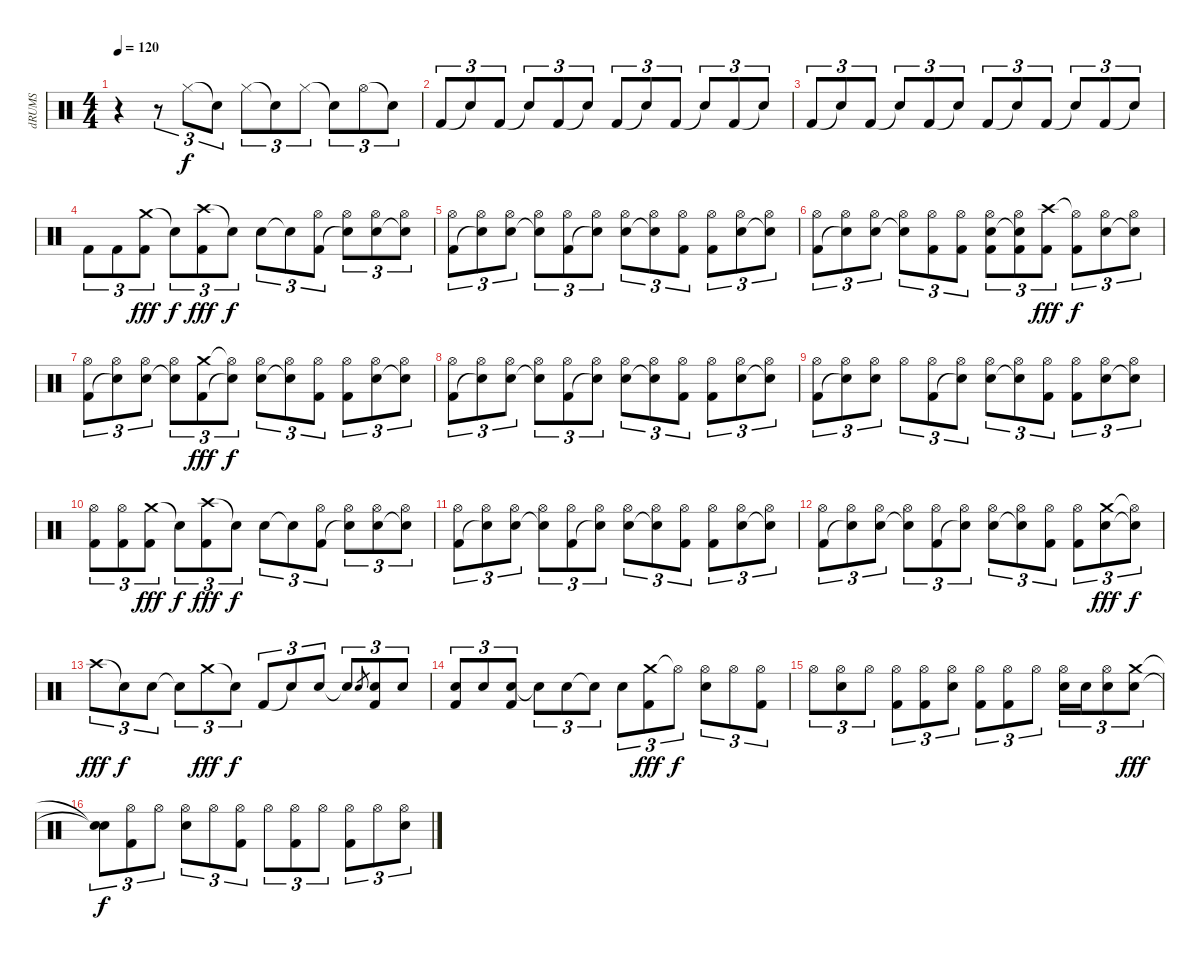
\track ("dRUMS" "dRUMS") {instrument percussion}
\staff {score}
\articulation defaults
\ts (4 4)
\tempo 120
\clef neutral
\ks c
r.4{dy f} r.8{tu (3 2)} "Hi-Hat (closed)".8{tu (3 2)} "Snare (hit)"{t}.8{tu (3 2)} "Hi-Hat (closed)".8{tu (3 2)} "Snare (hit)"{t}.8{tu (3 2)} "Hi-Hat (closed)".8{tu (3 2)} "Snare (hit)"{t}.8{tu (3 2)} "Hi-Hat (open)".8{tu (3 2)} "Snare (hit)"{t}.8{tu (3 2)} |
"Kick (hit) 2".8{tu (3 2)} "Snare (hit)"{t}.8{tu (3 2)} "Kick (hit) 2".8{tu (3 2)} "Snare (hit)"{t}.8{tu (3 2)} "Kick (hit) 2".8{tu (3 2)} "Snare (hit)"{t}.8{tu (3 2)} "Kick (hit) 2".8{tu (3 2)} "Snare (hit)"{t}.8{tu (3 2)} "Kick (hit) 2".8{tu (3 2)} "Snare (hit)"{t}.8{tu (3 2)} "Kick (hit) 2".8{tu (3 2)} "Snare (hit)"{t}.8{tu (3 2)} |
"Kick (hit) 2".8{tu (3 2)} "Snare (hit)"{t}.8{tu (3 2)} "Kick (hit) 2".8{tu (3 2)} "Snare (hit)"{t}.8{tu (3 2)} "Kick (hit) 2".8{tu (3 2)} "Snare (hit)"{t}.8{tu (3 2)} "Kick (hit) 2".8{tu (3 2)} "Snare (hit)"{t}.8{tu (3 2)} "Kick (hit) 2".8{tu (3 2)} "Snare (hit)"{t}.8{tu (3 2)} "Kick (hit) 2".8{tu (3 2)} "Snare (hit)"{t}.8{tu (3 2)} |
"Kick (hit) 2".8{tu (3 2)} "Kick (hit) 2".8{tu (3 2)} ("Crash medium (hit)" "Kick (hit) 2").8{tu (3 2) dy fff} "Snare (hit)"{t}.8{tu (3 2) dy f} ("Crash high (hit)" "Kick (hit) 2").8{tu (3 2) dy fff} "Snare (hit)"{t}.8{tu (3 2) dy f} "Electric Snare (hit)".8{tu (3 2)} "Snare (hit)"{t}.8{tu (3 2)} ("Hi-Hat (open)" "Kick (hit) 2").8{tu (3 2)} ("Hi-Hat (open)" "Snare (hit)"{t}).8{tu (3 2)} ("Hi-Hat (open)" "Electric Snare (hit)").8{tu (3 2)} ("Hi-Hat (open)" "Snare (hit)"{t}).8{tu (3 2)} |
("Hi-Hat (open)" "Kick (hit) 2").8{tu (3 2)} ("Hi-Hat (open)" "Snare (hit)"{t}).8{tu (3 2)} ("Hi-Hat (open)" "Electric Snare (hit)").8{tu (3 2)} ("Hi-Hat (open)" "Snare (hit)"{t}).8{tu (3 2)} ("Hi-Hat (open)" "Kick (hit) 2").8{tu (3 2)} ("Hi-Hat (open)" "Snare (hit)"{t}).8{tu (3 2)} ("Hi-Hat (open)" "Electric Snare (hit)").8{tu (3 2)} ("Hi-Hat (open)" "Snare (hit)"{t}).8{tu (3 2)} ("Hi-Hat (open)" "Kick (hit) 2").8{tu (3 2)} ("Hi-Hat (open)" "Kick (hit) 2").8{tu (3 2)} ("Hi-Hat (open)" "Electric Snare (hit)").8{tu (3 2)} ("Hi-Hat (open)" "Snare (hit)"{t}).8{tu (3 2)} |
("Hi-Hat (open)" "Kick (hit) 2").8{tu (3 2)} ("Hi-Hat (open)" "Snare (hit)"{t}).8{tu (3 2)} ("Hi-Hat (open)" "Electric Snare (hit)").8{tu (3 2)} ("Hi-Hat (open)" "Snare (hit)"{t}).8{tu (3 2)} ("Hi-Hat (open)" "Kick (hit) 2").8{tu (3 2)} ("Hi-Hat (open)" "Kick (hit) 2").8{tu (3 2)} ("Hi-Hat (open)" "Electric Snare (hit)" "Kick (hit) 2").8{tu (3 2)} ("Hi-Hat (open)" "Snare (hit)"{t} "Kick (hit) 2").8{tu (3 2)} ("Crash high (hit)" "Kick (hit) 2").8{tu (3 2) dy fff} ("Hi-Hat (open)"{t} "Kick (hit) 2").8{tu (3 2) dy f} ("Hi-Hat (open)" "Electric Snare (hit)").8{tu (3 2)} ("Hi-Hat (open)" "Snare (hit)"{t}).8{tu (3 2)} |
("Hi-Hat (open)" "Kick (hit) 2").8{tu (3 2)} ("Hi-Hat (open)" "Snare (hit)"{t}).8{tu (3 2)} ("Hi-Hat (open)" "Electric Snare (hit)").8{tu (3 2)} ("Hi-Hat (open)" "Snare (hit)"{t}).8{tu (3 2)} ("Crash medium (hit)" "Kick (hit) 2").8{tu (3 2) dy fff} ("Hi-Hat (open)"{t} "Snare (hit)"{t}).8{tu (3 2) dy f} ("Hi-Hat (open)" "Electric Snare (hit)").8{tu (3 2)} ("Hi-Hat (open)" "Snare (hit)"{t}).8{tu (3 2)} ("Hi-Hat (open)" "Kick (hit) 2").8{tu (3 2)} ("Hi-Hat (open)" "Kick (hit) 2").8{tu (3 2)} ("Hi-Hat (open)" "Electric Snare (hit)").8{tu (3 2)} ("Hi-Hat (open)" "Snare (hit)"{t}).8{tu (3 2)} |
("Hi-Hat (open)" "Kick (hit) 2").8{tu (3 2)} ("Hi-Hat (open)" "Snare (hit)"{t}).8{tu (3 2)} ("Hi-Hat (open)" "Electric Snare (hit)").8{tu (3 2)} ("Hi-Hat (open)" "Snare (hit)"{t}).8{tu (3 2)} ("Hi-Hat (open)" "Kick (hit) 2").8{tu (3 2)} ("Hi-Hat (open)" "Snare (hit)"{t}).8{tu (3 2)} ("Hi-Hat (open)" "Electric Snare (hit)").8{tu (3 2)} ("Hi-Hat (open)" "Snare (hit)"{t}).8{tu (3 2)} ("Hi-Hat (open)" "Kick (hit) 2").8{tu (3 2)} ("Hi-Hat (open)" "Kick (hit) 2").8{tu (3 2)} ("Hi-Hat (open)" "Electric Snare (hit)").8{tu (3 2)} ("Hi-Hat (open)" "Snare (hit)"{t}).8{tu (3 2)} |
("Hi-Hat (open)" "Kick (hit) 2").8{tu (3 2)} ("Hi-Hat (open)" "Snare (hit)"{t}).8{tu (3 2)} ("Hi-Hat (open)" "Electric Snare (hit)").8{tu (3 2)} "Hi-Hat (open)".8{tu (3 2)} ("Hi-Hat (open)" "Kick (hit) 2").8{tu (3 2)} ("Hi-Hat (open)" "Snare (hit)"{t}).8{tu (3 2)} ("Hi-Hat (open)" "Electric Snare (hit)").8{tu (3 2)} ("Hi-Hat (open)" "Snare (hit)"{t}).8{tu (3 2)} ("Hi-Hat (open)" "Kick (hit) 2").8{tu (3 2)} ("Hi-Hat (open)" "Kick (hit) 2").8{tu (3 2)} ("Hi-Hat (open)" "Electric Snare (hit)").8{tu (3 2)} ("Hi-Hat (open)" "Snare (hit)"{t}).8{tu (3 2)} |
("Hi-Hat (open)" "Kick (hit) 2").8{tu (3 2)} ("Hi-Hat (open)" "Kick (hit) 2").8{tu (3 2)} ("Crash medium (hit)" "Kick (hit) 2").8{tu (3 2) dy fff} "Snare (hit)"{t}.8{tu (3 2) dy f} ("Crash high (hit)" "Kick (hit) 2").8{tu (3 2) dy fff} "Snare (hit)"{t}.8{tu (3 2) dy f} "Electric Snare (hit)".8{tu (3 2)} "Snare (hit)"{t}.8{tu (3 2)} ("Hi-Hat (open)" "Kick (hit) 2").8{tu (3 2)} ("Hi-Hat (open)" "Snare (hit)"{t}).8{tu (3 2)} ("Hi-Hat (open)" "Electric Snare (hit)").8{tu (3 2)} ("Hi-Hat (open)" "Snare (hit)"{t}).8{tu (3 2)} |
("Hi-Hat (open)" "Kick (hit) 2").8{tu (3 2)} ("Hi-Hat (open)" "Snare (hit)"{t}).8{tu (3 2)} ("Hi-Hat (open)" "Electric Snare (hit)").8{tu (3 2)} ("Hi-Hat (open)" "Snare (hit)"{t}).8{tu (3 2)} ("Hi-Hat (open)" "Kick (hit) 2").8{tu (3 2)} ("Hi-Hat (open)" "Snare (hit)"{t}).8{tu (3 2)} ("Hi-Hat (open)" "Electric Snare (hit)").8{tu (3 2)} ("Hi-Hat (open)" "Snare (hit)"{t}).8{tu (3 2)} ("Hi-Hat (open)" "Kick (hit) 2").8{tu (3 2)} ("Hi-Hat (open)" "Kick (hit) 2").8{tu (3 2)} ("Hi-Hat (open)" "Electric Snare (hit)").8{tu (3 2)} ("Hi-Hat (open)" "Snare (hit)"{t}).8{tu (3 2)} |
("Hi-Hat (open)" "Kick (hit) 2").8{tu (3 2)} ("Hi-Hat (open)" "Snare (hit)"{t}).8{tu (3 2)} ("Hi-Hat (open)" "Electric Snare (hit)").8{tu (3 2)} ("Hi-Hat (open)" "Snare (hit)"{t}).8{tu (3 2)} ("Hi-Hat (open)" "Kick (hit) 2").8{tu (3 2)} ("Hi-Hat (open)" "Snare (hit)"{t}).8{tu (3 2)} ("Hi-Hat (open)" "Electric Snare (hit)").8{tu (3 2)} ("Hi-Hat (open)" "Snare (hit)"{t}).8{tu (3 2)} ("Hi-Hat (open)" "Kick (hit) 2").8{tu (3 2)} ("Hi-Hat (open)" "Kick (hit) 2").8{tu (3 2)} ("Crash medium (hit)" "Electric Snare (hit)").8{tu (3 2) dy fff} ("Hi-Hat (open)"{t} "Snare (hit)"{t}).8{tu (3 2) dy f} |
"Crash high (hit)".8{tu (3 2) dy fff} "Snare (hit)"{t}.8{tu (3 2) dy f} "Electric Snare (hit)".8{tu (3 2)} "Snare (hit)"{t}.8{tu (3 2)} "Crash medium (hit)".8{tu (3 2) dy fff} "Snare (hit)"{t}.8{tu (3 2) dy f} "Kick (hit) 2".8{tu (3 2)} "Snare (hit)"{t}.8{tu (3 2)} "Electric Snare (hit)".8{tu (3 2)} "Snare (hit)"{t}.8{tu (3 2)} "Electric Snare (hit)".8{gr} ("Electric Snare (hit)" "Kick (hit) 2").8{tu (3 2)} "Electric Snare (hit)".8{tu (3 2)} |
("Electric Snare (hit)" "Kick (hit) 2").8{tu (3 2)} "Electric Snare (hit)".8{tu (3 2)} ("Electric Snare (hit)" "Kick (hit) 2").8{tu (3 2)} "Snare (hit)"{t}.8{tu (3 2)} "Electric Snare (hit)".8{tu (3 2)} "Snare (hit)"{t}.8{tu (3 2)} "Electric Snare (hit)".8{tu (3 2)} ("Crash medium (hit)" "Kick (hit) 2").8{tu (3 2) dy fff} "Hi-Hat (open)"{t}.8{tu (3 2) dy f} ("Hi-Hat (open)" "Electric Snare (hit)").8{tu (3 2)} "Hi-Hat (open)".8{tu (3 2)} ("Hi-Hat (open)" "Kick (hit) 2").8{tu (3 2)} |
"Hi-Hat (open)".8{tu (3 2)} ("Hi-Hat (open)" "Electric Snare (hit)").8{tu (3 2)} "Hi-Hat (open)".8{tu (3 2)} ("Hi-Hat (open)" "Kick (hit) 2").8{tu (3 2)} ("Hi-Hat (open)" "Kick (hit) 2").8{tu (3 2)} ("Hi-Hat (open)" "Electric Snare (hit)").8{tu (3 2)} ("Hi-Hat (open)" "Kick (hit) 2").8{tu (3 2)} ("Hi-Hat (open)" "Kick (hit) 2").8{tu (3 2)} "Hi-Hat (open)".8{tu (3 2)} ("Hi-Hat (open)" "Electric Snare (hit)").16{tu (3 2)} "Electric Snare (hit)".16{tu (3 2)} ("Hi-Hat (open)" "Electric Snare (hit)").8{tu (3 2)} ("Crash medium (hit)" "Electric Snare (hit)").8{tu (3 2) dy fff} |
("Snare (hit)"{t} "Snare (hit)"{t}).8{tu (3 2) dy f} ("Hi-Hat (open)" "Kick (hit) 2").8{tu (3 2)} "Hi-Hat (open)".8{tu (3 2)} ("Hi-Hat (open)" "Electric Snare (hit)").8{tu (3 2)} "Hi-Hat (open)".8{tu (3 2)} ("Hi-Hat (open)" "Kick (hit) 2").8{tu (3 2)} "Hi-Hat (open)".8{tu (3 2)} ("Hi-Hat (open)" "Kick (hit) 2").8{tu (3 2)} "Hi-Hat (open)".8{tu (3 2)} ("Hi-Hat (open)" "Kick (hit) 2").8{tu (3 2)} "Hi-Hat (open)".8{tu (3 2)} ("Hi-Hat (open)" "Electric Snare (hit)").8{tu (3 2)}
